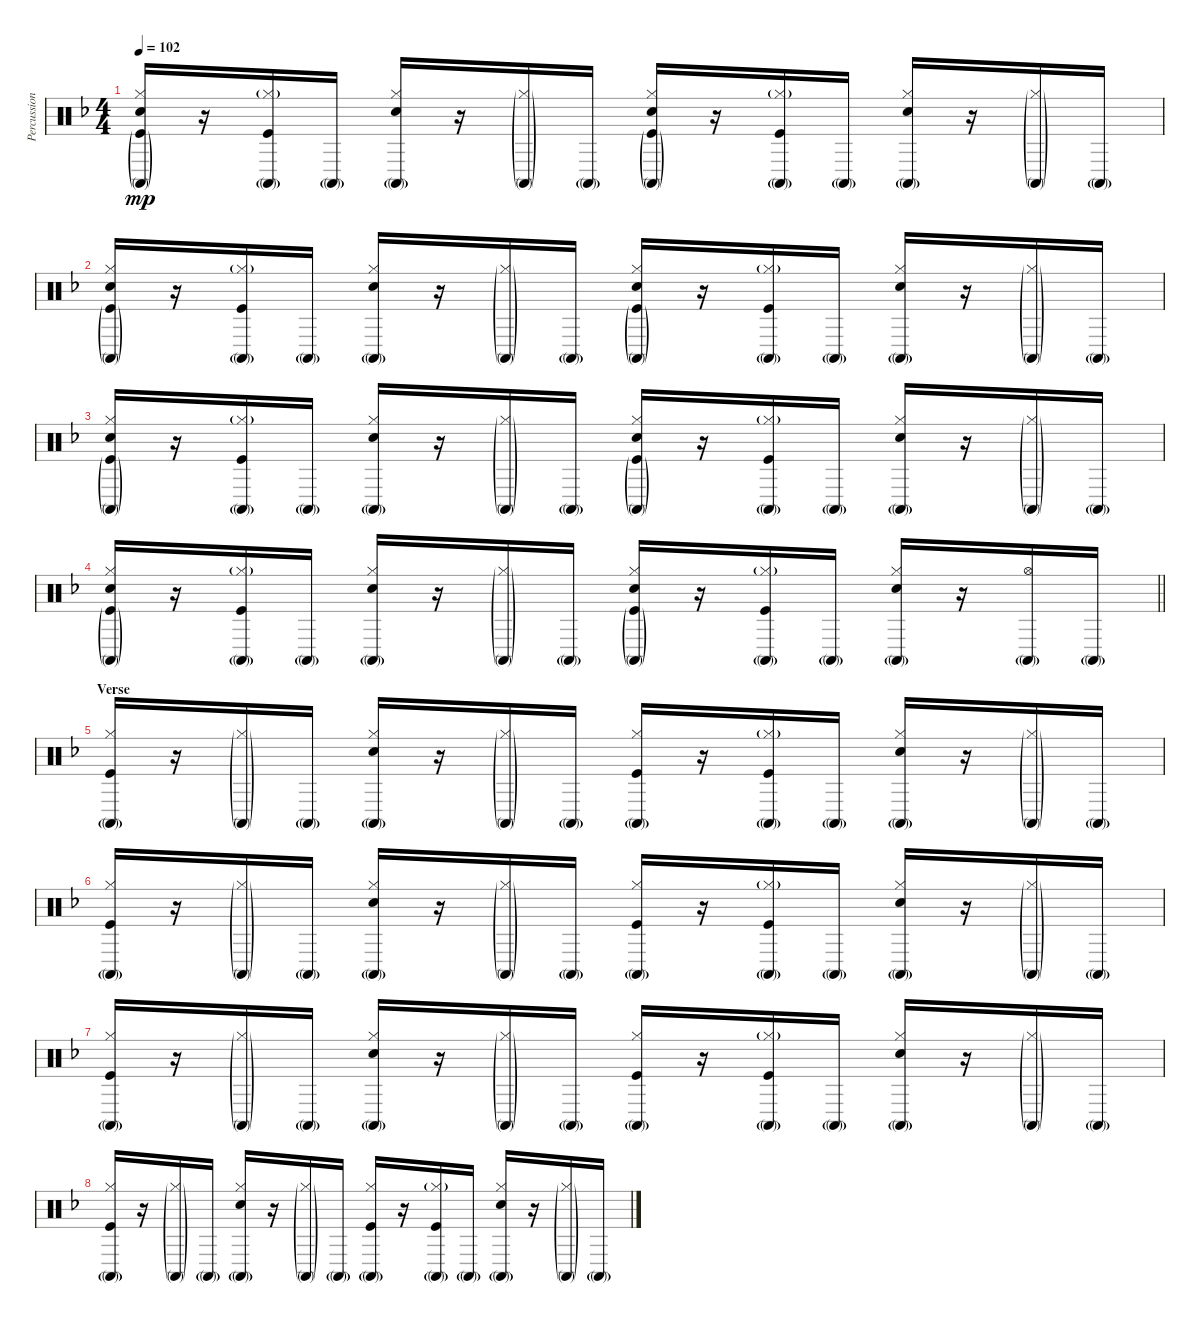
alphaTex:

\track ("Percussion" "Percussion") {instrument percussion bank 255}
\staff {score}
\articulation defaults
\ts (4 4)
\tempo 102
\clef neutral
\ks f
("Conga high (mute)"{g} "Hi-Hat (closed)" "Snare (hit) 2" "Kick (hit)"{g}).16{dy mp} r.16 ("Conga high (mute)"{g} "Hi-Hat (closed)"{g} "Kick (hit)").16 "Conga high (mute)"{g}.16 ("Conga high (mute)"{g} "Hi-Hat (closed)" "Snare (hit) 2").16 r.16 ("Conga high (mute)"{g} "Hi-Hat (closed)"{g}).16 "Conga high (mute)"{g}.16 ("Conga high (mute)"{g} "Hi-Hat (closed)" "Snare (hit) 2" "Kick (hit)"{g}).16 r.16 ("Conga high (mute)"{g} "Hi-Hat (closed)"{g} "Kick (hit)").16 "Conga high (mute)"{g}.16 ("Conga high (mute)"{g} "Hi-Hat (closed)" "Snare (hit) 2").16 r.16 ("Conga high (mute)"{g} "Hi-Hat (closed)"{g}).16 "Conga high (mute)"{g}.16 |
("Conga high (mute)"{g} "Hi-Hat (closed)" "Snare (hit) 2" "Kick (hit)"{g}).16 r.16 ("Conga high (mute)"{g} "Hi-Hat (closed)"{g} "Kick (hit)").16 "Conga high (mute)"{g}.16 ("Conga high (mute)"{g} "Hi-Hat (closed)" "Snare (hit) 2").16 r.16 ("Conga high (mute)"{g} "Hi-Hat (closed)"{g}).16 "Conga high (mute)"{g}.16 ("Conga high (mute)"{g} "Hi-Hat (closed)" "Snare (hit) 2" "Kick (hit)"{g}).16 r.16 ("Conga high (mute)"{g} "Hi-Hat (closed)"{g} "Kick (hit)").16 "Conga high (mute)"{g}.16 ("Conga high (mute)"{g} "Hi-Hat (closed)" "Snare (hit) 2").16 r.16 ("Conga high (mute)"{g} "Hi-Hat (closed)"{g}).16 "Conga high (mute)"{g}.16 |
("Conga high (mute)"{g} "Hi-Hat (closed)" "Snare (hit) 2" "Kick (hit)"{g}).16 r.16 ("Conga high (mute)"{g} "Hi-Hat (closed)"{g} "Kick (hit)").16 "Conga high (mute)"{g}.16 ("Conga high (mute)"{g} "Hi-Hat (closed)" "Snare (hit) 2").16 r.16 ("Conga high (mute)"{g} "Hi-Hat (closed)"{g}).16 "Conga high (mute)"{g}.16 ("Conga high (mute)"{g} "Hi-Hat (closed)" "Snare (hit) 2" "Kick (hit)"{g}).16 r.16 ("Conga high (mute)"{g} "Hi-Hat (closed)"{g} "Kick (hit)").16 "Conga high (mute)"{g}.16 ("Conga high (mute)"{g} "Hi-Hat (closed)" "Snare (hit) 2").16 r.16 ("Conga high (mute)"{g} "Hi-Hat (closed)"{g}).16 "Conga high (mute)"{g}.16 |
\barLineRight lightlight
("Conga high (mute)"{g} "Hi-Hat (closed)" "Snare (hit) 2" "Kick (hit)"{g}).16 r.16 ("Conga high (mute)"{g} "Hi-Hat (closed)"{g} "Kick (hit)").16 "Conga high (mute)"{g}.16 ("Conga high (mute)"{g} "Hi-Hat (closed)" "Snare (hit) 2").16 r.16 ("Conga high (mute)"{g} "Hi-Hat (closed)"{g}).16 "Conga high (mute)"{g}.16 ("Conga high (mute)"{g} "Hi-Hat (closed)" "Snare (hit) 2" "Kick (hit)"{g}).16 r.16 ("Conga high (mute)"{g} "Hi-Hat (closed)"{g} "Kick (hit)").16 "Conga high (mute)"{g}.16 ("Conga high (mute)"{g} "Hi-Hat (closed)" "Snare (hit) 2").16 r.16 ("Conga high (mute)"{g} "Hi-Hat (open)").16 "Conga high (mute)"{g}.16 |
\section ("" "Verse")
("Conga high (mute)"{g} "Hi-Hat (closed)" "Kick (hit)").16 r.16 ("Conga high (mute)"{g} "Hi-Hat (closed)"{g}).16 "Conga high (mute)"{g}.16 ("Conga high (mute)"{g} "Hi-Hat (closed)" "Snare (hit) 2").16 r.16 ("Conga high (mute)"{g} "Hi-Hat (closed)"{g}).16 "Conga high (mute)"{g}.16 ("Conga high (mute)"{g} "Hi-Hat (closed)" "Kick (hit)").16 r.16 ("Conga high (mute)"{g} "Hi-Hat (closed)"{g} "Kick (hit)").16 "Conga high (mute)"{g}.16 ("Conga high (mute)"{g} "Hi-Hat (closed)" "Snare (hit) 2").16 r.16 ("Conga high (mute)"{g} "Hi-Hat (closed)"{g}).16 "Conga high (mute)"{g}.16 |
("Conga high (mute)"{g} "Hi-Hat (closed)" "Kick (hit)").16 r.16 ("Conga high (mute)"{g} "Hi-Hat (closed)"{g}).16 "Conga high (mute)"{g}.16 ("Conga high (mute)"{g} "Hi-Hat (closed)" "Snare (hit) 2").16 r.16 ("Conga high (mute)"{g} "Hi-Hat (closed)"{g}).16 "Conga high (mute)"{g}.16 ("Conga high (mute)"{g} "Hi-Hat (closed)" "Kick (hit)").16 r.16 ("Conga high (mute)"{g} "Hi-Hat (closed)"{g} "Kick (hit)").16 "Conga high (mute)"{g}.16 ("Conga high (mute)"{g} "Hi-Hat (closed)" "Snare (hit) 2").16 r.16 ("Conga high (mute)"{g} "Hi-Hat (closed)"{g}).16 "Conga high (mute)"{g}.16 |
("Conga high (mute)"{g} "Hi-Hat (closed)" "Kick (hit)").16 r.16 ("Conga high (mute)"{g} "Hi-Hat (closed)"{g}).16 "Conga high (mute)"{g}.16 ("Conga high (mute)"{g} "Hi-Hat (closed)" "Snare (hit) 2").16 r.16 ("Conga high (mute)"{g} "Hi-Hat (closed)"{g}).16 "Conga high (mute)"{g}.16 ("Conga high (mute)"{g} "Hi-Hat (closed)" "Kick (hit)").16 r.16 ("Conga high (mute)"{g} "Hi-Hat (closed)"{g} "Kick (hit)").16 "Conga high (mute)"{g}.16 ("Conga high (mute)"{g} "Hi-Hat (closed)" "Snare (hit) 2").16 r.16 ("Conga high (mute)"{g} "Hi-Hat (closed)"{g}).16 "Conga high (mute)"{g}.16 |
("Conga high (mute)"{g} "Hi-Hat (closed)" "Kick (hit)").16 r.16 ("Conga high (mute)"{g} "Hi-Hat (closed)"{g}).16 "Conga high (mute)"{g}.16 ("Conga high (mute)"{g} "Hi-Hat (closed)" "Snare (hit) 2").16 r.16 ("Conga high (mute)"{g} "Hi-Hat (closed)"{g}).16 "Conga high (mute)"{g}.16 ("Conga high (mute)"{g} "Hi-Hat (closed)" "Kick (hit)").16 r.16 ("Conga high (mute)"{g} "Hi-Hat (closed)"{g} "Kick (hit)").16 "Conga high (mute)"{g}.16 ("Conga high (mute)"{g} "Hi-Hat (closed)" "Snare (hit) 2").16 r.16 ("Conga high (mute)"{g} "Hi-Hat (closed)"{g}).16 "Conga high (mute)"{g}.16
